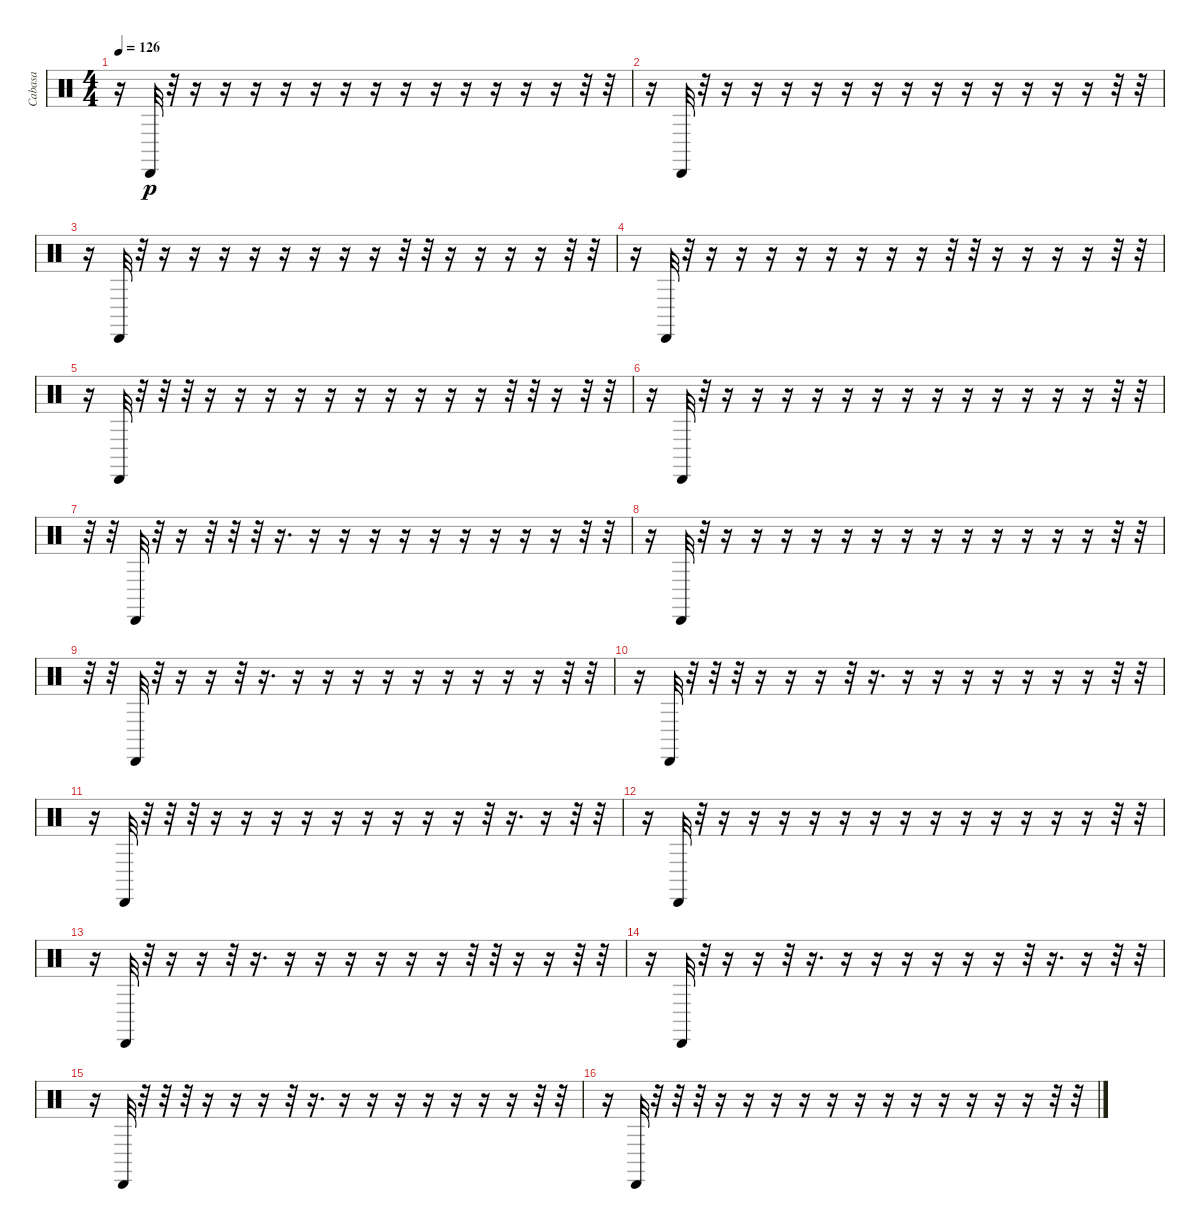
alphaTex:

\track ("Cabasa" "Cabasa") {instrument percussion}
\staff {score}
\articulation defaults
\ts (4 4)
\tempo 126
\clef neutral
\ks c
r.16{dy p} "Cabasa (hit)".32 r.32 r.16 r.16 r.16 r.16 r.16 r.16 r.16 r.16 r.16 r.16 r.16 r.16 r.16 r.32 r.32 |
r.16 "Cabasa (hit)".32 r.32 r.16 r.16 r.16 r.16 r.16 r.16 r.16 r.16 r.16 r.16 r.16 r.16 r.16 r.32 r.32 |
r.16 "Cabasa (hit)".32 r.32 r.16 r.16 r.16 r.16 r.16 r.16 r.16 r.16 r.32 r.32 r.16 r.16 r.16 r.16 r.32 r.32 |
r.16 "Cabasa (hit)".32 r.32 r.16 r.16 r.16 r.16 r.16 r.16 r.16 r.16 r.32 r.32 r.16 r.16 r.16 r.16 r.32 r.32 |
r.16 "Cabasa (hit)".32 r.32 r.32 r.32 r.16 r.16 r.16 r.16 r.16 r.16 r.16 r.16 r.16 r.16 r.32 r.32 r.16 r.32 r.32 |
r.16 "Cabasa (hit)".32 r.32 r.16 r.16 r.16 r.16 r.16 r.16 r.16 r.16 r.16 r.16 r.16 r.16 r.16 r.32 r.32 |
r.32 r.32 "Cabasa (hit)".32 r.32 r.16 r.32 r.32 r.32 r.16{d} r.16 r.16 r.16 r.16 r.16 r.16 r.16 r.16 r.16 r.32 r.32 |
r.16 "Cabasa (hit)".32 r.32 r.16 r.16 r.16 r.16 r.16 r.16 r.16 r.16 r.16 r.16 r.16 r.16 r.16 r.32 r.32 |
r.32 r.32 "Cabasa (hit)".32 r.32 r.16 r.16 r.32 r.16{d} r.16 r.16 r.16 r.16 r.16 r.16 r.16 r.16 r.16 r.32 r.32 |
r.16 "Cabasa (hit)".32 r.32 r.32 r.32 r.16 r.16 r.16 r.32 r.16{d} r.16 r.16 r.16 r.16 r.16 r.16 r.16 r.32 r.32 |
r.16 "Cabasa (hit)".32 r.32 r.32 r.32 r.16 r.16 r.16 r.16 r.16 r.16 r.16 r.16 r.16 r.32 r.16{d} r.16 r.32 r.32 |
r.16 "Cabasa (hit)".32 r.32 r.16 r.16 r.16 r.16 r.16 r.16 r.16 r.16 r.16 r.16 r.16 r.16 r.16 r.32 r.32 |
r.16 "Cabasa (hit)".32 r.32 r.16 r.16 r.32 r.16{d} r.16 r.16 r.16 r.16 r.16 r.16 r.32 r.32 r.16 r.16 r.32 r.32 |
r.16 "Cabasa (hit)".32 r.32 r.16 r.16 r.32 r.16{d} r.16 r.16 r.16 r.16 r.16 r.16 r.32 r.16{d} r.16 r.32 r.32 |
r.16 "Cabasa (hit)".32 r.32 r.32 r.32 r.16 r.16 r.16 r.32 r.16{d} r.16 r.16 r.16 r.16 r.16 r.16 r.16 r.32 r.32 |
r.16 "Cabasa (hit)".32 r.32 r.32 r.32 r.16 r.16 r.16 r.16 r.16 r.16 r.16 r.16 r.16 r.16 r.16 r.16 r.32 r.32
